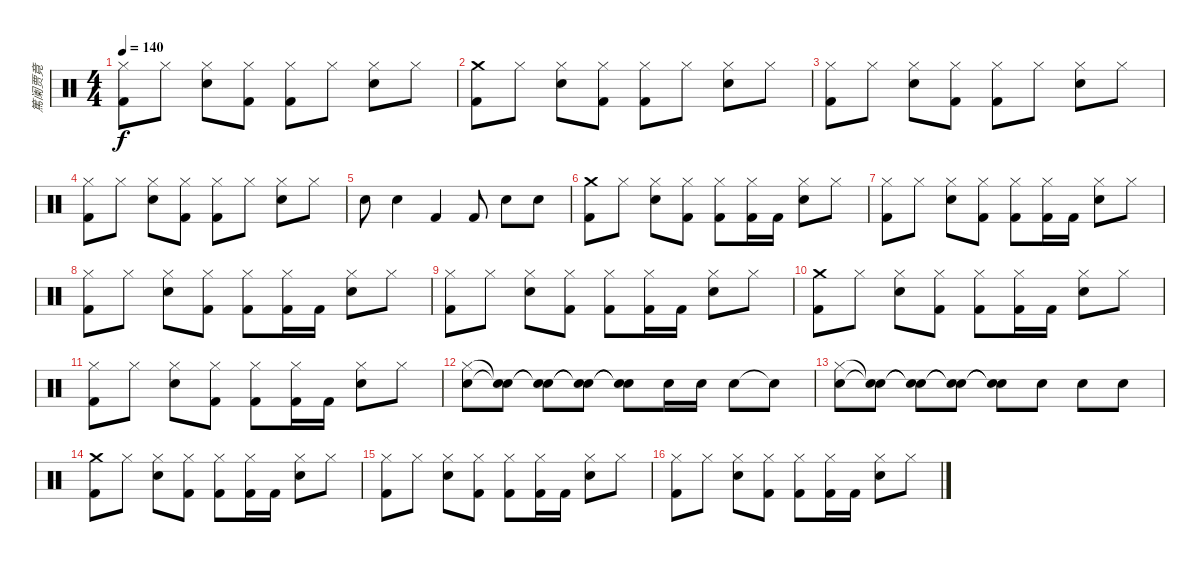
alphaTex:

\track ("篤阑贾竟" "篤阑贾竟") {instrument percussion}
\staff {score}
\articulation defaults
\ts (4 4)
\tempo 140
\clef neutral
\ks c
("Hi-Hat (closed)" "Kick (hit) 2").8{dy f} "Hi-Hat (closed)".8 ("Hi-Hat (closed)" "Snare (hit) 2").8 ("Hi-Hat (closed)" "Kick (hit) 2").8 ("Hi-Hat (closed)" "Kick (hit) 2").8 "Hi-Hat (closed)".8 ("Hi-Hat (closed)" "Snare (hit) 2").8 "Hi-Hat (closed)".8 |
("Crash medium (hit)" "Kick (hit) 2").8 "Hi-Hat (closed)".8 ("Hi-Hat (closed)" "Snare (hit) 2").8 ("Hi-Hat (closed)" "Kick (hit) 2").8 ("Hi-Hat (closed)" "Kick (hit) 2").8 "Hi-Hat (closed)".8 ("Hi-Hat (closed)" "Snare (hit) 2").8 "Hi-Hat (closed)".8 |
("Hi-Hat (closed)" "Kick (hit) 2").8 "Hi-Hat (closed)".8 ("Hi-Hat (closed)" "Snare (hit) 2").8 ("Hi-Hat (closed)" "Kick (hit) 2").8 ("Hi-Hat (closed)" "Kick (hit) 2").8 "Hi-Hat (closed)".8 ("Hi-Hat (closed)" "Snare (hit) 2").8 "Hi-Hat (closed)".8 |
("Hi-Hat (closed)" "Kick (hit) 2").8 "Hi-Hat (closed)".8 ("Hi-Hat (closed)" "Snare (hit) 2").8 ("Hi-Hat (closed)" "Kick (hit) 2").8 ("Hi-Hat (closed)" "Kick (hit) 2").8 "Hi-Hat (closed)".8 ("Hi-Hat (closed)" "Snare (hit) 2").8 "Hi-Hat (closed)".8 |
"Snare (hit) 2".8 "Snare (hit) 2".4 "Kick (hit) 2".4 "Kick (hit) 2".8 "Snare (hit) 2".8 "Snare (hit) 2".8 |
("Crash medium (hit)" "Kick (hit) 2").8 "Hi-Hat (closed)".8 ("Hi-Hat (closed)" "Snare (hit) 2").8 ("Hi-Hat (closed)" "Kick (hit) 2").8 ("Hi-Hat (closed)" "Kick (hit) 2").8 ("Hi-Hat (closed)" "Kick (hit) 2").16 "Kick (hit) 2".16 ("Hi-Hat (closed)" "Snare (hit) 2").8 "Hi-Hat (closed)".8 |
("Hi-Hat (closed)" "Kick (hit) 2").8 "Hi-Hat (closed)".8 ("Hi-Hat (closed)" "Snare (hit) 2").8 ("Hi-Hat (closed)" "Kick (hit) 2").8 ("Hi-Hat (closed)" "Kick (hit) 2").8 ("Hi-Hat (closed)" "Kick (hit) 2").16 "Kick (hit) 2".16 ("Hi-Hat (closed)" "Snare (hit) 2").8 "Hi-Hat (closed)".8 |
("Hi-Hat (closed)" "Kick (hit) 2").8 "Hi-Hat (closed)".8 ("Hi-Hat (closed)" "Snare (hit) 2").8 ("Hi-Hat (closed)" "Kick (hit) 2").8 ("Hi-Hat (closed)" "Kick (hit) 2").8 ("Hi-Hat (closed)" "Kick (hit) 2").16 "Kick (hit) 2".16 ("Hi-Hat (closed)" "Snare (hit) 2").8 "Hi-Hat (closed)".8 |
("Hi-Hat (closed)" "Kick (hit) 2").8 "Hi-Hat (closed)".8 ("Hi-Hat (closed)" "Snare (hit) 2").8 ("Hi-Hat (closed)" "Kick (hit) 2").8 ("Hi-Hat (closed)" "Kick (hit) 2").8 ("Hi-Hat (closed)" "Kick (hit) 2").16 "Kick (hit) 2".16 ("Hi-Hat (closed)" "Snare (hit) 2").8 "Hi-Hat (closed)".8 |
("Crash medium (hit)" "Kick (hit) 2").8 "Hi-Hat (closed)".8 ("Hi-Hat (closed)" "Snare (hit) 2").8 ("Hi-Hat (closed)" "Kick (hit) 2").8 ("Hi-Hat (closed)" "Kick (hit) 2").8 ("Hi-Hat (closed)" "Kick (hit) 2").16 "Kick (hit) 2".16 ("Hi-Hat (closed)" "Snare (hit) 2").8 "Hi-Hat (closed)".8 |
("Hi-Hat (closed)" "Kick (hit) 2").8 "Hi-Hat (closed)".8 ("Hi-Hat (closed)" "Snare (hit) 2").8 ("Hi-Hat (closed)" "Kick (hit) 2").8 ("Hi-Hat (closed)" "Kick (hit) 2").8 ("Hi-Hat (closed)" "Kick (hit) 2").16 "Kick (hit) 2".16 ("Hi-Hat (closed)" "Snare (hit) 2").8 "Hi-Hat (closed)".8 |
("Hi-Hat (closed)" "Snare (hit) 2").8 ("Snare (hit)"{t} "Snare (hit)"{t}).8 ("Snare (hit)"{t} "Snare (hit)"{t}).8 ("Snare (hit)"{t} "Snare (hit)"{t}).8 ("Snare (hit)"{t} "Snare (hit)"{t}).8 "Snare (hit) 2".16 "Snare (hit) 2".16 "Snare (hit) 2".8 "Snare (hit)"{t}.8 |
("Hi-Hat (closed)" "Snare (hit) 2").8 ("Snare (hit)"{t} "Snare (hit)"{t}).8 ("Snare (hit)"{t} "Snare (hit)"{t}).8 ("Snare (hit)"{t} "Snare (hit)"{t}).8 ("Snare (hit)"{t} "Snare (hit)"{t}).8 "Snare (hit) 2".8 "Snare (hit) 2".8 "Snare (hit) 2".8 |
("Crash medium (hit)" "Kick (hit) 2").8 "Hi-Hat (closed)".8 ("Hi-Hat (closed)" "Snare (hit) 2").8 ("Hi-Hat (closed)" "Kick (hit) 2").8 ("Hi-Hat (closed)" "Kick (hit) 2").8 ("Hi-Hat (closed)" "Kick (hit) 2").16 "Kick (hit) 2".16 ("Hi-Hat (closed)" "Snare (hit) 2").8 "Hi-Hat (closed)".8 |
("Hi-Hat (closed)" "Kick (hit) 2").8 "Hi-Hat (closed)".8 ("Hi-Hat (closed)" "Snare (hit) 2").8 ("Hi-Hat (closed)" "Kick (hit) 2").8 ("Hi-Hat (closed)" "Kick (hit) 2").8 ("Hi-Hat (closed)" "Kick (hit) 2").16 "Kick (hit) 2".16 ("Hi-Hat (closed)" "Snare (hit) 2").8 "Hi-Hat (closed)".8 |
("Hi-Hat (closed)" "Kick (hit) 2").8 "Hi-Hat (closed)".8 ("Hi-Hat (closed)" "Snare (hit) 2").8 ("Hi-Hat (closed)" "Kick (hit) 2").8 ("Hi-Hat (closed)" "Kick (hit) 2").8 ("Hi-Hat (closed)" "Kick (hit) 2").16 "Kick (hit) 2".16 ("Hi-Hat (closed)" "Snare (hit) 2").8 "Hi-Hat (closed)".8
